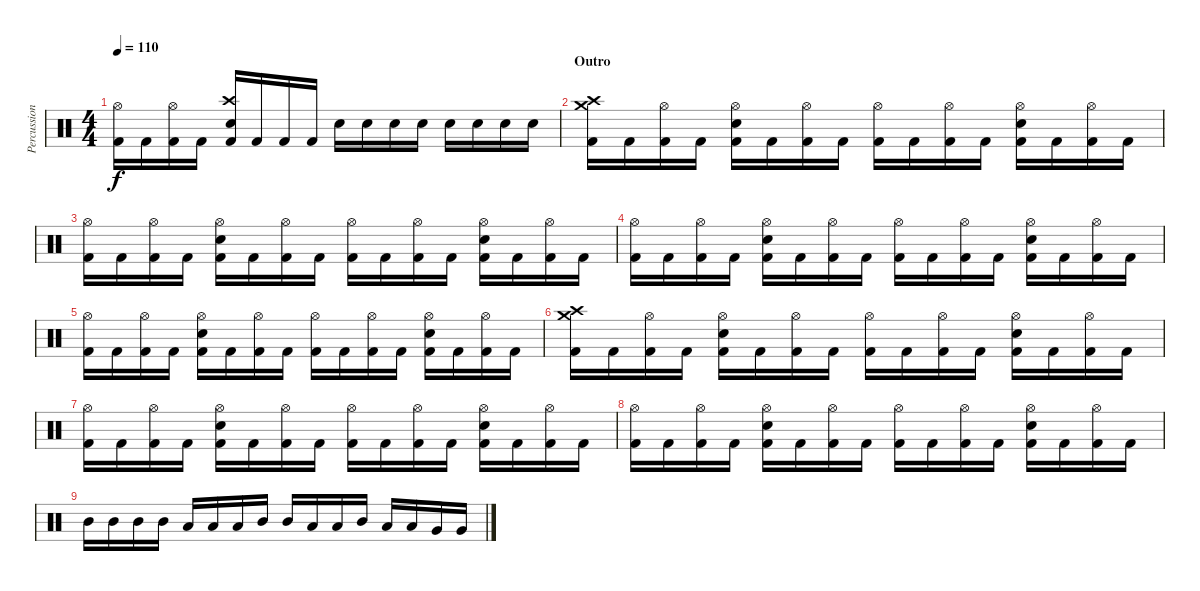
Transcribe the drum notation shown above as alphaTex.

\track ("Percussions" "Percussion") {instrument percussion}
\staff {score}
\articulation defaults
\ts (4 4)
\tempo 110
\clef neutral
\ks c
("Hi-Hat (open)" "Kick (hit) 2").16{dy f} "Kick (hit) 2".16 ("Hi-Hat (open)" "Kick (hit) 2").16 "Kick (hit) 2".16 ("Crash high (hit)" "Electric Snare (hit)" "Kick (hit) 2").16 "Kick (hit) 2".16 "Kick (hit) 2".16 "Kick (hit) 2".16 "Electric Snare (hit)".16 "Electric Snare (hit)".16 "Electric Snare (hit)".16 "Electric Snare (hit)".16 "Electric Snare (hit)".16 "Electric Snare (hit)".16 "Electric Snare (hit)".16 "Electric Snare (hit)".16 |
\section ("" "Outro")
("Crash high (hit)" "Crash medium (hit)" "Kick (hit) 2").16 "Kick (hit) 2".16 ("Hi-Hat (open)" "Kick (hit) 2").16 "Kick (hit) 2".16 ("Hi-Hat (open)" "Electric Snare (hit)" "Kick (hit) 2").16 "Kick (hit) 2".16 ("Hi-Hat (open)" "Kick (hit) 2").16 "Kick (hit) 2".16 ("Hi-Hat (open)" "Kick (hit) 2").16 "Kick (hit) 2".16 ("Hi-Hat (open)" "Kick (hit) 2").16 "Kick (hit) 2".16 ("Hi-Hat (open)" "Electric Snare (hit)" "Kick (hit) 2").16 "Kick (hit) 2".16 ("Hi-Hat (open)" "Kick (hit) 2").16 "Kick (hit) 2".16 |
("Hi-Hat (open)" "Kick (hit) 2").16 "Kick (hit) 2".16 ("Hi-Hat (open)" "Kick (hit) 2").16 "Kick (hit) 2".16 ("Hi-Hat (open)" "Electric Snare (hit)" "Kick (hit) 2").16 "Kick (hit) 2".16 ("Hi-Hat (open)" "Kick (hit) 2").16 "Kick (hit) 2".16 ("Hi-Hat (open)" "Kick (hit) 2").16 "Kick (hit) 2".16 ("Hi-Hat (open)" "Kick (hit) 2").16 "Kick (hit) 2".16 ("Hi-Hat (open)" "Electric Snare (hit)" "Kick (hit) 2").16 "Kick (hit) 2".16 ("Hi-Hat (open)" "Kick (hit) 2").16 "Kick (hit) 2".16 |
("Hi-Hat (open)" "Kick (hit) 2").16 "Kick (hit) 2".16 ("Hi-Hat (open)" "Kick (hit) 2").16 "Kick (hit) 2".16 ("Hi-Hat (open)" "Electric Snare (hit)" "Kick (hit) 2").16 "Kick (hit) 2".16 ("Hi-Hat (open)" "Kick (hit) 2").16 "Kick (hit) 2".16 ("Hi-Hat (open)" "Kick (hit) 2").16 "Kick (hit) 2".16 ("Hi-Hat (open)" "Kick (hit) 2").16 "Kick (hit) 2".16 ("Hi-Hat (open)" "Electric Snare (hit)" "Kick (hit) 2").16 "Kick (hit) 2".16 ("Hi-Hat (open)" "Kick (hit) 2").16 "Kick (hit) 2".16 |
("Hi-Hat (open)" "Kick (hit) 2").16 "Kick (hit) 2".16 ("Hi-Hat (open)" "Kick (hit) 2").16 "Kick (hit) 2".16 ("Hi-Hat (open)" "Electric Snare (hit)" "Kick (hit) 2").16 "Kick (hit) 2".16 ("Hi-Hat (open)" "Kick (hit) 2").16 "Kick (hit) 2".16 ("Hi-Hat (open)" "Kick (hit) 2").16 "Kick (hit) 2".16 ("Hi-Hat (open)" "Kick (hit) 2").16 "Kick (hit) 2".16 ("Hi-Hat (open)" "Electric Snare (hit)" "Kick (hit) 2").16 "Kick (hit) 2".16 ("Hi-Hat (open)" "Kick (hit) 2").16 "Kick (hit) 2".16 |
("Crash high (hit)" "Crash medium (hit)" "Kick (hit) 2").16{volume 8} "Kick (hit) 2".16 ("Hi-Hat (open)" "Kick (hit) 2").16 "Kick (hit) 2".16 ("Hi-Hat (open)" "Electric Snare (hit)" "Kick (hit) 2").16 "Kick (hit) 2".16 ("Hi-Hat (open)" "Kick (hit) 2").16 "Kick (hit) 2".16 ("Hi-Hat (open)" "Kick (hit) 2").16 "Kick (hit) 2".16 ("Hi-Hat (open)" "Kick (hit) 2").16 "Kick (hit) 2".16 ("Hi-Hat (open)" "Electric Snare (hit)" "Kick (hit) 2").16 "Kick (hit) 2".16 ("Hi-Hat (open)" "Kick (hit) 2").16 "Kick (hit) 2".16 |
("Hi-Hat (open)" "Kick (hit) 2").16 "Kick (hit) 2".16 ("Hi-Hat (open)" "Kick (hit) 2").16 "Kick (hit) 2".16 ("Hi-Hat (open)" "Electric Snare (hit)" "Kick (hit) 2").16 "Kick (hit) 2".16 ("Hi-Hat (open)" "Kick (hit) 2").16 "Kick (hit) 2".16 ("Hi-Hat (open)" "Kick (hit) 2").16 "Kick (hit) 2".16 ("Hi-Hat (open)" "Kick (hit) 2").16 "Kick (hit) 2".16 ("Hi-Hat (open)" "Electric Snare (hit)" "Kick (hit) 2").16 "Kick (hit) 2".16 ("Hi-Hat (open)" "Kick (hit) 2").16 "Kick (hit) 2".16 |
("Hi-Hat (open)" "Kick (hit) 2").16{volume 8} "Kick (hit) 2".16 ("Hi-Hat (open)" "Kick (hit) 2").16 "Kick (hit) 2".16 ("Hi-Hat (open)" "Electric Snare (hit)" "Kick (hit) 2").16 "Kick (hit) 2".16 ("Hi-Hat (open)" "Kick (hit) 2").16 "Kick (hit) 2".16 ("Hi-Hat (open)" "Kick (hit) 2").16 "Kick (hit) 2".16 ("Hi-Hat (open)" "Kick (hit) 2").16 "Kick (hit) 2".16 ("Hi-Hat (open)" "Electric Snare (hit)" "Kick (hit) 2").16 "Kick (hit) 2".16 ("Hi-Hat (open)" "Kick (hit) 2").16 "Kick (hit) 2".16 |
"Mid Tom (hit)".16 "Mid Tom (hit)".16 "Mid Tom (hit)".16 "Mid Tom (hit)".16 "Low Tom (hit)".16 "Low Tom (hit)".16 "Low Tom (hit)".16 "Mid Tom (hit)".16 "Mid Tom (hit)".16 "Low Tom (hit)".16 "Low Tom (hit)".16 "Mid Tom (hit)".16 "Low Tom (hit)".16 "Low Tom (hit)".16 "Very Low Tom (hit)".16 "Very Low Tom (hit)".16
